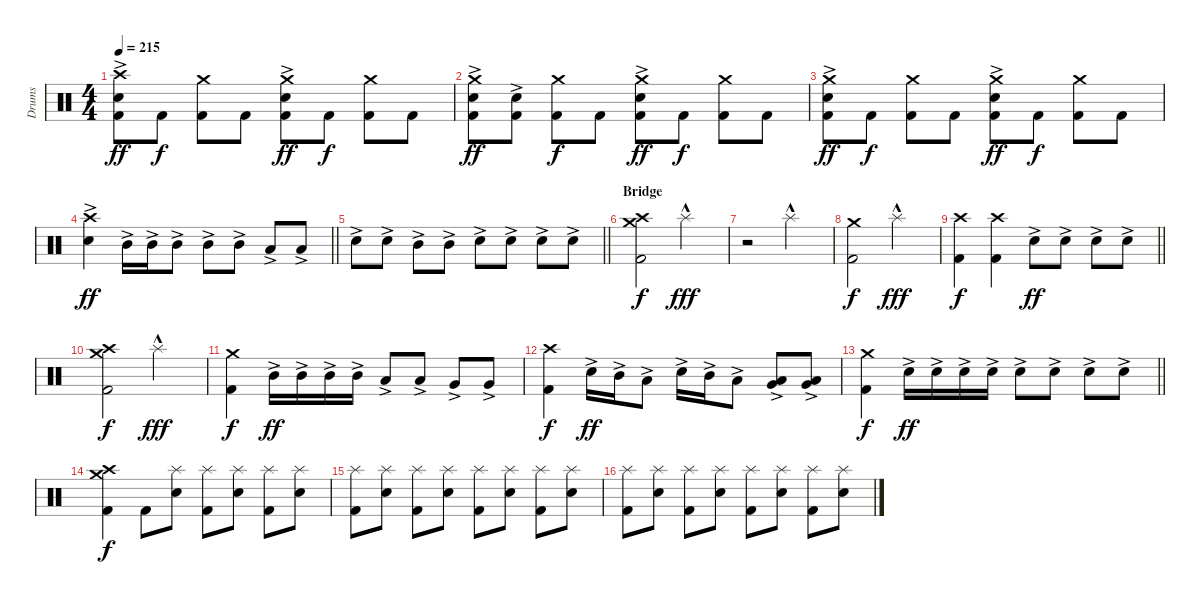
\track ("Drums" "Drums") {instrument percussion}
\staff {score}
\articulation defaults
\ts (4 4)
\section ("" "")
\tempo 215
\clef neutral
\ks c
("Kick (hit) 2" "Snare (hit) 2"{ac} "Crash high (hit)").8{dy ff} "Kick (hit) 2".8{dy f} ("Kick (hit) 2" "Crash medium (hit)").8 "Kick (hit) 2".8 ("Kick (hit) 2" "Snare (hit) 2"{ac} "Crash medium (hit)").8{dy ff} "Kick (hit) 2".8{dy f} ("Kick (hit) 2" "Crash medium (hit)").8 "Kick (hit) 2".8 |
("Kick (hit) 2" "Snare (hit) 2"{ac} "Crash medium (hit)").8{dy ff} ("Kick (hit) 2" "Snare (hit) 2"{ac}).8 ("Kick (hit) 2" "Crash medium (hit)").8{dy f} "Kick (hit) 2".8 ("Kick (hit) 2" "Snare (hit) 2"{ac} "Crash medium (hit)").8{dy ff} "Kick (hit) 2".8{dy f} ("Kick (hit) 2" "Crash medium (hit)").8 "Kick (hit) 2".8 |
("Kick (hit) 2" "Snare (hit) 2"{ac} "Crash medium (hit)").8{dy ff} "Kick (hit) 2".8{dy f} ("Kick (hit) 2" "Crash medium (hit)").8 "Kick (hit) 2".8 ("Kick (hit) 2" "Snare (hit) 2"{ac} "Crash medium (hit)").8{dy ff} "Kick (hit) 2".8{dy f} ("Kick (hit) 2" "Crash medium (hit)").8 "Kick (hit) 2".8 |
\barLineRight lightlight
("Snare (hit) 2"{ac} "Crash high (hit)").4{dy ff} "Mid Tom (hit)"{ac}.16 "Mid Tom (hit)"{ac}.16 "Mid Tom (hit)"{ac}.8 "Mid Tom (hit)"{ac}.8 "Mid Tom (hit)"{ac}.8 "Low Tom (hit)"{ac}.8 "Low Tom (hit)"{ac}.8 |
\section ("" "")
\barLineRight lightlight "Snare (hit) 2"{ac}.8 "Snare (hit) 2"{ac}.8 "Mid Tom (hit)"{ac}.8 "Mid Tom (hit)"{ac}.8 "Snare (hit) 2"{ac}.8 "Snare (hit) 2"{ac}.8 "Snare (hit) 2"{ac}.8 "Snare (hit) 2"{ac}.8
|
\section ("" "Bridge")
("Kick (hit) 2" "Crash medium (hit)" "Crash high (hit)").2{dy f} "Splash (hit)"{hac}.2{dy fff} |
r.2 "Splash (hit)"{hac}.2 |
("Kick (hit) 2" "Crash medium (hit)").2{dy f} "Splash (hit)"{hac}.2{dy fff} |
\barLineRight lightlight
("Kick (hit) 2" "Crash high (hit)").4{dy f} ("Kick (hit) 2" "Crash high (hit)").4 "Snare (hit) 2"{ac}.8{dy ff} "Snare (hit) 2"{ac}.8 "Snare (hit) 2"{ac}.8 "Snare (hit) 2"{ac}.8 |
\section ("" "")
("Kick (hit) 2" "Crash medium (hit)" "Crash high (hit)").2{dy f} "Splash (hit)"{hac}.2{dy fff} |
("Kick (hit) 2" "Crash medium (hit)").4{dy f} "Mid Tom (hit)"{ac}.16{dy ff} "Mid Tom (hit)"{ac}.16 "Mid Tom (hit)"{ac}.16 "Mid Tom (hit)"{ac}.16 "Low Tom (hit)"{ac}.8 "Low Tom (hit)"{ac}.8 "Very Low Tom (hit)"{ac}.8 "Very Low Tom (hit)"{ac}.8 |
("Kick (hit) 2" "Crash high (hit)").4{dy f} "Snare (hit) 2"{ac}.16{dy ff} "Mid Tom (hit)"{ac}.16 "Low Tom (hit)"{ac}.8 "Snare (hit) 2"{ac}.16 "Mid Tom (hit)"{ac}.16 "Low Tom (hit)"{ac}.8 ("Very Low Tom (hit)"{ac} "Low Floor Tom (hit)"{ac}).8 ("Very Low Tom (hit)"{ac} "Low Floor Tom (hit)"{ac}).8 |
\barLineRight lightlight
("Kick (hit) 2" "Crash medium (hit)").4{dy f} "Snare (hit) 2"{ac}.16{dy ff} "Snare (hit) 2"{ac}.16 "Snare (hit) 2"{ac}.16 "Snare (hit) 2"{ac}.16 "Snare (hit) 2"{ac}.8 "Snare (hit) 2"{ac}.8 "Snare (hit) 2"{ac}.8 "Snare (hit) 2"{ac}.8 |
\section ("" "")
("Kick (hit) 2" "Crash medium (hit)" "Crash high (hit)").4{dy f} "Kick (hit) 2".8 ("Snare (hit) 2" "Splash (hit)").8 ("Kick (hit) 2" "Splash (hit)").8 ("Snare (hit) 2" "Splash (hit)").8 ("Kick (hit) 2" "Splash (hit)").8 ("Snare (hit) 2" "Splash (hit)").8 |
("Kick (hit) 2" "Splash (hit)").8 ("Snare (hit) 2" "Splash (hit)").8 ("Kick (hit) 2" "Splash (hit)").8 ("Snare (hit) 2" "Splash (hit)").8 ("Kick (hit) 2" "Splash (hit)").8 ("Snare (hit) 2" "Splash (hit)").8 ("Kick (hit) 2" "Splash (hit)").8 ("Snare (hit) 2" "Splash (hit)").8 |
("Kick (hit) 2" "Splash (hit)").8 ("Snare (hit) 2" "Splash (hit)").8 ("Kick (hit) 2" "Splash (hit)").8 ("Snare (hit) 2" "Splash (hit)").8 ("Kick (hit) 2" "Splash (hit)").8 ("Snare (hit) 2" "Splash (hit)").8 ("Kick (hit) 2" "Splash (hit)").8 ("Snare (hit) 2" "Splash (hit)").8
